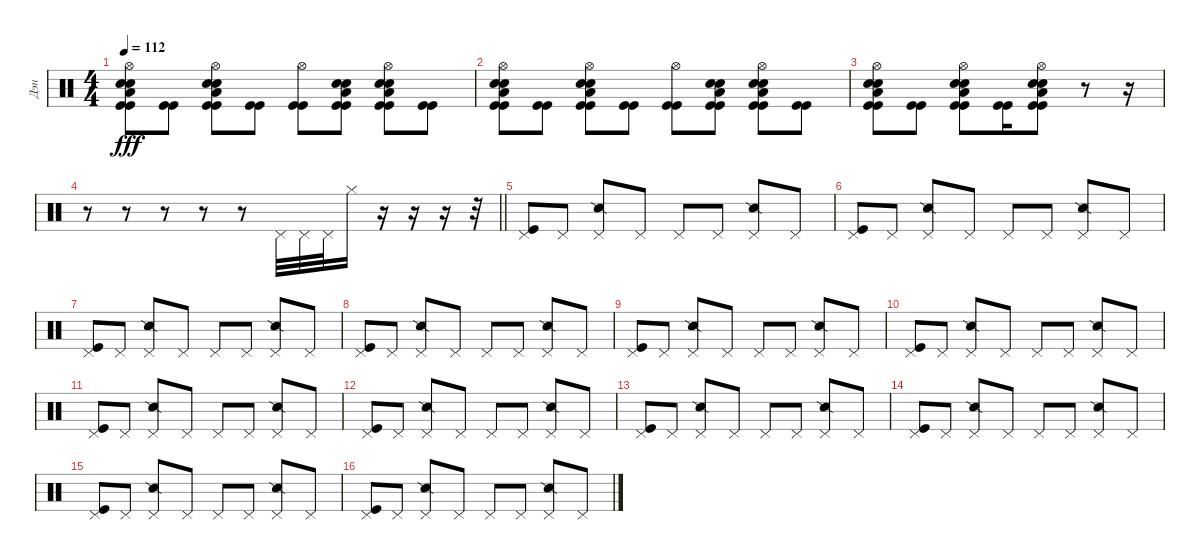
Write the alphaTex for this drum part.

\track ("Дэн" "Дэн") {instrument percussion}
\staff {score}
\articulation defaults
\ts (4 4)
\tempo 112
\clef neutral
\ks c
("Hi-Hat (open)" "Kick (hit)" "Kick (hit)" "Electric Snare (hit)" "Electric Snare (hit)" "Low Tom (hit)").8{dy fff} ("Kick (hit)" "Kick (hit)").8 ("Hi-Hat (open)" "Kick (hit)" "Kick (hit)" "Electric Snare (hit)" "Electric Snare (hit)" "Low Tom (hit)").8 ("Kick (hit)" "Kick (hit)").8 ("Hi-Hat (open)" "Kick (hit)" "Kick (hit)").8 ("Kick (hit)" "Kick (hit)" "Electric Snare (hit)" "Electric Snare (hit)" "Low Tom (hit)").8 ("Hi-Hat (open)" "Kick (hit)" "Kick (hit)" "Electric Snare (hit)" "Electric Snare (hit)" "Low Tom (hit)").8 ("Kick (hit)" "Kick (hit)").8 |
("Hi-Hat (open)" "Kick (hit)" "Kick (hit)" "Electric Snare (hit)" "Electric Snare (hit)" "Low Tom (hit)").8 ("Kick (hit)" "Kick (hit)").8 ("Hi-Hat (open)" "Kick (hit)" "Kick (hit)" "Electric Snare (hit)" "Electric Snare (hit)" "Low Tom (hit)").8 ("Kick (hit)" "Kick (hit)").8 ("Hi-Hat (open)" "Kick (hit)" "Kick (hit)").8 ("Kick (hit)" "Kick (hit)" "Electric Snare (hit)" "Electric Snare (hit)" "Low Tom (hit)").8 ("Hi-Hat (open)" "Kick (hit)" "Kick (hit)" "Electric Snare (hit)" "Electric Snare (hit)" "Low Tom (hit)").8 ("Kick (hit)" "Kick (hit)").8 |
("Hi-Hat (open)" "Kick (hit)" "Kick (hit)" "Electric Snare (hit)" "Electric Snare (hit)" "Low Tom (hit)").8 ("Kick (hit)" "Kick (hit)").8 ("Hi-Hat (open)" "Kick (hit)" "Kick (hit)" "Electric Snare (hit)" "Electric Snare (hit)" "Low Tom (hit)").8 ("Kick (hit)" "Kick (hit)").16 ("Hi-Hat (open)" "Kick (hit)" "Kick (hit)" "Electric Snare (hit)" "Electric Snare (hit)" "Low Tom (hit)").8 r.8 r.16 |
\barLineRight lightlight
r.8 r.8 r.8 r.8 r.8 "Pedal Hi-Hat (hit)".32 "Pedal Hi-Hat (hit)".32 "Pedal Hi-Hat (hit)".32 "Hi-Hat (closed)".16 r.16 r.16 r.16 r.32 |
("Pedal Hi-Hat (hit)" "Kick (hit)").8 "Pedal Hi-Hat (hit)".8 ("Pedal Hi-Hat (hit)" "Snare (side stick) 2").8 "Pedal Hi-Hat (hit)".8 "Pedal Hi-Hat (hit)".8 "Pedal Hi-Hat (hit)".8 ("Pedal Hi-Hat (hit)" "Snare (side stick) 2").8 "Pedal Hi-Hat (hit)".8 |
("Pedal Hi-Hat (hit)" "Kick (hit)").8 "Pedal Hi-Hat (hit)".8 ("Pedal Hi-Hat (hit)" "Snare (side stick) 2").8 "Pedal Hi-Hat (hit)".8 "Pedal Hi-Hat (hit)".8 "Pedal Hi-Hat (hit)".8 ("Pedal Hi-Hat (hit)" "Snare (side stick) 2").8 "Pedal Hi-Hat (hit)".8 |
("Pedal Hi-Hat (hit)" "Kick (hit)").8 "Pedal Hi-Hat (hit)".8 ("Pedal Hi-Hat (hit)" "Snare (side stick) 2").8 "Pedal Hi-Hat (hit)".8 "Pedal Hi-Hat (hit)".8 "Pedal Hi-Hat (hit)".8 ("Pedal Hi-Hat (hit)" "Snare (side stick) 2").8 "Pedal Hi-Hat (hit)".8 |
("Pedal Hi-Hat (hit)" "Kick (hit)").8 "Pedal Hi-Hat (hit)".8 ("Pedal Hi-Hat (hit)" "Snare (side stick) 2").8 "Pedal Hi-Hat (hit)".8 "Pedal Hi-Hat (hit)".8 "Pedal Hi-Hat (hit)".8 ("Pedal Hi-Hat (hit)" "Snare (side stick) 2").8 "Pedal Hi-Hat (hit)".8 |
("Pedal Hi-Hat (hit)" "Kick (hit)").8 "Pedal Hi-Hat (hit)".8 ("Pedal Hi-Hat (hit)" "Snare (side stick) 2").8 "Pedal Hi-Hat (hit)".8 "Pedal Hi-Hat (hit)".8 "Pedal Hi-Hat (hit)".8 ("Pedal Hi-Hat (hit)" "Snare (side stick) 2").8 "Pedal Hi-Hat (hit)".8 |
("Pedal Hi-Hat (hit)" "Kick (hit)").8 "Pedal Hi-Hat (hit)".8 ("Pedal Hi-Hat (hit)" "Snare (side stick) 2").8 "Pedal Hi-Hat (hit)".8 "Pedal Hi-Hat (hit)".8 "Pedal Hi-Hat (hit)".8 ("Pedal Hi-Hat (hit)" "Snare (side stick) 2").8 "Pedal Hi-Hat (hit)".8 |
("Pedal Hi-Hat (hit)" "Kick (hit)").8 "Pedal Hi-Hat (hit)".8 ("Pedal Hi-Hat (hit)" "Snare (side stick) 2").8 "Pedal Hi-Hat (hit)".8 "Pedal Hi-Hat (hit)".8 "Pedal Hi-Hat (hit)".8 ("Pedal Hi-Hat (hit)" "Snare (side stick) 2").8 "Pedal Hi-Hat (hit)".8 |
("Pedal Hi-Hat (hit)" "Kick (hit)").8 "Pedal Hi-Hat (hit)".8 ("Pedal Hi-Hat (hit)" "Snare (side stick) 2").8 "Pedal Hi-Hat (hit)".8 "Pedal Hi-Hat (hit)".8 "Pedal Hi-Hat (hit)".8 ("Pedal Hi-Hat (hit)" "Snare (side stick) 2").8 "Pedal Hi-Hat (hit)".8 |
("Pedal Hi-Hat (hit)" "Kick (hit)").8 "Pedal Hi-Hat (hit)".8 ("Pedal Hi-Hat (hit)" "Snare (side stick) 2").8 "Pedal Hi-Hat (hit)".8 "Pedal Hi-Hat (hit)".8 "Pedal Hi-Hat (hit)".8 ("Pedal Hi-Hat (hit)" "Snare (side stick) 2").8 "Pedal Hi-Hat (hit)".8 |
("Pedal Hi-Hat (hit)" "Kick (hit)").8 "Pedal Hi-Hat (hit)".8 ("Pedal Hi-Hat (hit)" "Snare (side stick) 2").8 "Pedal Hi-Hat (hit)".8 "Pedal Hi-Hat (hit)".8 "Pedal Hi-Hat (hit)".8 ("Pedal Hi-Hat (hit)" "Snare (side stick) 2").8 "Pedal Hi-Hat (hit)".8 |
("Pedal Hi-Hat (hit)" "Kick (hit)").8 "Pedal Hi-Hat (hit)".8 ("Pedal Hi-Hat (hit)" "Snare (side stick) 2").8 "Pedal Hi-Hat (hit)".8 "Pedal Hi-Hat (hit)".8 "Pedal Hi-Hat (hit)".8 ("Pedal Hi-Hat (hit)" "Snare (side stick) 2").8 "Pedal Hi-Hat (hit)".8 |
("Pedal Hi-Hat (hit)" "Kick (hit)").8 "Pedal Hi-Hat (hit)".8 ("Pedal Hi-Hat (hit)" "Snare (side stick) 2").8 "Pedal Hi-Hat (hit)".8 "Pedal Hi-Hat (hit)".8 "Pedal Hi-Hat (hit)".8 ("Pedal Hi-Hat (hit)" "Snare (side stick) 2").8 "Pedal Hi-Hat (hit)".8
